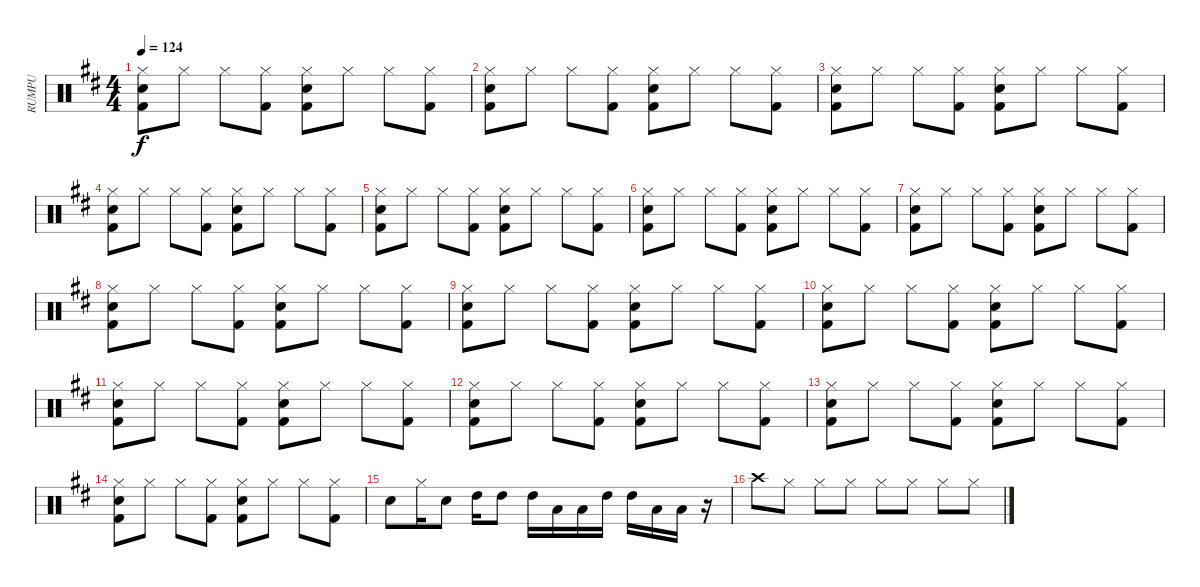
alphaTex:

\track ("RUMPU" "RUMPU") {instrument percussion}
\staff {score}
\articulation defaults
\ts (4 4)
\tempo 124
\clef neutral
\ks d
("Hi-Hat (closed)" "Kick (hit) 2" "Electric Snare (hit)").8{dy f} "Hi-Hat (closed)".8 "Hi-Hat (closed)".8 ("Hi-Hat (closed)" "Kick (hit) 2").8 ("Hi-Hat (closed)" "Kick (hit) 2" "Electric Snare (hit)").8 "Hi-Hat (closed)".8 "Hi-Hat (closed)".8 ("Hi-Hat (closed)" "Kick (hit) 2").8 |
("Hi-Hat (closed)" "Kick (hit) 2" "Electric Snare (hit)").8 "Hi-Hat (closed)".8 "Hi-Hat (closed)".8 ("Hi-Hat (closed)" "Kick (hit) 2").8 ("Hi-Hat (closed)" "Kick (hit) 2" "Electric Snare (hit)").8 "Hi-Hat (closed)".8 "Hi-Hat (closed)".8 ("Hi-Hat (closed)" "Kick (hit) 2").8 |
("Hi-Hat (closed)" "Kick (hit) 2" "Electric Snare (hit)").8 "Hi-Hat (closed)".8 "Hi-Hat (closed)".8 ("Hi-Hat (closed)" "Kick (hit) 2").8 ("Hi-Hat (closed)" "Kick (hit) 2" "Electric Snare (hit)").8 "Hi-Hat (closed)".8 "Hi-Hat (closed)".8 ("Hi-Hat (closed)" "Kick (hit) 2").8 |
("Hi-Hat (closed)" "Kick (hit) 2" "Electric Snare (hit)").8 "Hi-Hat (closed)".8 "Hi-Hat (closed)".8 ("Hi-Hat (closed)" "Kick (hit) 2").8 ("Hi-Hat (closed)" "Kick (hit) 2" "Electric Snare (hit)").8 "Hi-Hat (closed)".8 "Hi-Hat (closed)".8 ("Hi-Hat (closed)" "Kick (hit) 2").8 |
("Hi-Hat (closed)" "Kick (hit) 2" "Electric Snare (hit)").8 "Hi-Hat (closed)".8 "Hi-Hat (closed)".8 ("Hi-Hat (closed)" "Kick (hit) 2").8 ("Hi-Hat (closed)" "Kick (hit) 2" "Electric Snare (hit)").8 "Hi-Hat (closed)".8 "Hi-Hat (closed)".8 ("Hi-Hat (closed)" "Kick (hit) 2").8 |
("Hi-Hat (closed)" "Kick (hit) 2" "Electric Snare (hit)").8 "Hi-Hat (closed)".8 "Hi-Hat (closed)".8 ("Hi-Hat (closed)" "Kick (hit) 2").8 ("Hi-Hat (closed)" "Kick (hit) 2" "Electric Snare (hit)").8 "Hi-Hat (closed)".8 "Hi-Hat (closed)".8 ("Hi-Hat (closed)" "Kick (hit) 2").8 |
("Hi-Hat (closed)" "Kick (hit) 2" "Electric Snare (hit)").8 "Hi-Hat (closed)".8 "Hi-Hat (closed)".8 ("Hi-Hat (closed)" "Kick (hit) 2").8 ("Hi-Hat (closed)" "Kick (hit) 2" "Electric Snare (hit)").8 "Hi-Hat (closed)".8 "Hi-Hat (closed)".8 ("Hi-Hat (closed)" "Kick (hit) 2").8 |
("Hi-Hat (closed)" "Kick (hit) 2" "Electric Snare (hit)").8 "Hi-Hat (closed)".8 "Hi-Hat (closed)".8 ("Hi-Hat (closed)" "Kick (hit) 2").8 ("Hi-Hat (closed)" "Kick (hit) 2" "Electric Snare (hit)").8 "Hi-Hat (closed)".8 "Hi-Hat (closed)".8 ("Hi-Hat (closed)" "Kick (hit) 2").8 |
("Hi-Hat (closed)" "Kick (hit) 2" "Electric Snare (hit)").8 "Hi-Hat (closed)".8 "Hi-Hat (closed)".8 ("Hi-Hat (closed)" "Kick (hit) 2").8 ("Hi-Hat (closed)" "Kick (hit) 2" "Electric Snare (hit)").8 "Hi-Hat (closed)".8 "Hi-Hat (closed)".8 ("Hi-Hat (closed)" "Kick (hit) 2").8 |
("Hi-Hat (closed)" "Kick (hit) 2" "Electric Snare (hit)").8 "Hi-Hat (closed)".8 "Hi-Hat (closed)".8 ("Hi-Hat (closed)" "Kick (hit) 2").8 ("Hi-Hat (closed)" "Kick (hit) 2" "Electric Snare (hit)").8 "Hi-Hat (closed)".8 "Hi-Hat (closed)".8 ("Hi-Hat (closed)" "Kick (hit) 2").8 |
("Hi-Hat (closed)" "Kick (hit) 2" "Electric Snare (hit)").8 "Hi-Hat (closed)".8 "Hi-Hat (closed)".8 ("Hi-Hat (closed)" "Kick (hit) 2").8 ("Hi-Hat (closed)" "Kick (hit) 2" "Electric Snare (hit)").8 "Hi-Hat (closed)".8 "Hi-Hat (closed)".8 ("Hi-Hat (closed)" "Kick (hit) 2").8 |
("Hi-Hat (closed)" "Kick (hit) 2" "Electric Snare (hit)").8 "Hi-Hat (closed)".8 "Hi-Hat (closed)".8 ("Hi-Hat (closed)" "Kick (hit) 2").8 ("Hi-Hat (closed)" "Kick (hit) 2" "Electric Snare (hit)").8 "Hi-Hat (closed)".8 "Hi-Hat (closed)".8 ("Hi-Hat (closed)" "Kick (hit) 2").8 |
("Hi-Hat (closed)" "Kick (hit) 2" "Electric Snare (hit)").8 "Hi-Hat (closed)".8 "Hi-Hat (closed)".8 ("Hi-Hat (closed)" "Kick (hit) 2").8 ("Hi-Hat (closed)" "Kick (hit) 2" "Electric Snare (hit)").8 "Hi-Hat (closed)".8 "Hi-Hat (closed)".8 ("Hi-Hat (closed)" "Kick (hit) 2").8 |
("Hi-Hat (closed)" "Kick (hit) 2" "Electric Snare (hit)").8 "Hi-Hat (closed)".8 "Hi-Hat (closed)".8 ("Hi-Hat (closed)" "Kick (hit) 2").8 ("Hi-Hat (closed)" "Kick (hit) 2" "Electric Snare (hit)").8 "Hi-Hat (closed)".8 "Hi-Hat (closed)".8 ("Hi-Hat (closed)" "Kick (hit) 2").8 |
"Electric Snare (hit)".8 "Hi-Hat (closed)".16 "Electric Snare (hit)".8 "High Tom (hit)".16 "High Tom (hit)".8 "High Tom (hit)".16 "Low Tom (hit)".16 "Low Tom (hit)".16 "High Tom (hit)".16 "High Tom (hit)".16 "Low Floor Tom (hit)".16 "Low Floor Tom (hit)".16 r.16 |
"Crash high (hit)".8 "Hi-Hat (closed)".8 "Hi-Hat (closed)".8 "Hi-Hat (closed)".8 "Hi-Hat (closed)".8 "Hi-Hat (closed)".8 "Hi-Hat (closed)".8 "Hi-Hat (closed)".8
